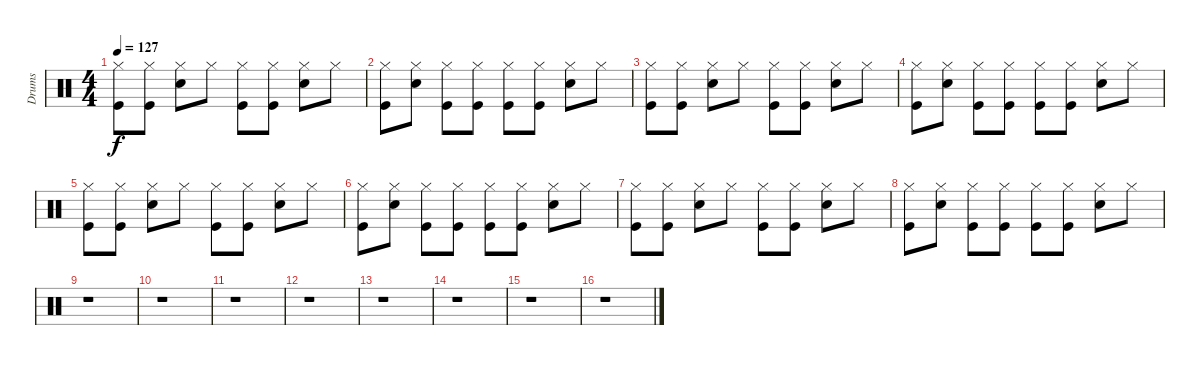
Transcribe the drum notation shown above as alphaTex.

\track ("Drums" "Drums") {instrument percussion}
\staff {score}
\articulation defaults
\ts (4 4)
\tempo 127
\clef neutral
\ks c
("Hi-Hat (closed)" "Kick (hit)").8{dy f} ("Hi-Hat (closed)" "Kick (hit)").8 ("Hi-Hat (closed)" "Electric Snare (hit)").8 "Hi-Hat (closed)".8 ("Hi-Hat (closed)" "Kick (hit)").8 ("Hi-Hat (closed)" "Kick (hit)").8 ("Hi-Hat (closed)" "Electric Snare (hit)").8 "Hi-Hat (closed)".8 |
("Hi-Hat (closed)" "Kick (hit)").8 ("Hi-Hat (closed)" "Electric Snare (hit)").8 ("Hi-Hat (closed)" "Kick (hit)").8 ("Hi-Hat (closed)" "Kick (hit)").8 ("Hi-Hat (closed)" "Kick (hit)").8 ("Hi-Hat (closed)" "Kick (hit)").8 ("Hi-Hat (closed)" "Electric Snare (hit)").8 "Hi-Hat (closed)".8 |
("Hi-Hat (closed)" "Kick (hit)").8 ("Hi-Hat (closed)" "Kick (hit)").8 ("Hi-Hat (closed)" "Electric Snare (hit)").8 "Hi-Hat (closed)".8 ("Hi-Hat (closed)" "Kick (hit)").8 ("Hi-Hat (closed)" "Kick (hit)").8 ("Hi-Hat (closed)" "Electric Snare (hit)").8 "Hi-Hat (closed)".8 |
("Hi-Hat (closed)" "Kick (hit)").8 ("Hi-Hat (closed)" "Electric Snare (hit)").8 ("Hi-Hat (closed)" "Kick (hit)").8 ("Hi-Hat (closed)" "Kick (hit)").8 ("Hi-Hat (closed)" "Kick (hit)").8 ("Hi-Hat (closed)" "Kick (hit)").8 ("Hi-Hat (closed)" "Electric Snare (hit)").8 "Hi-Hat (closed)".8 |
("Hi-Hat (closed)" "Kick (hit)").8 ("Hi-Hat (closed)" "Kick (hit)").8 ("Hi-Hat (closed)" "Electric Snare (hit)").8 "Hi-Hat (closed)".8 ("Hi-Hat (closed)" "Kick (hit)").8 ("Hi-Hat (closed)" "Kick (hit)").8 ("Hi-Hat (closed)" "Electric Snare (hit)").8 "Hi-Hat (closed)".8 |
("Hi-Hat (closed)" "Kick (hit)").8 ("Hi-Hat (closed)" "Electric Snare (hit)").8 ("Hi-Hat (closed)" "Kick (hit)").8 ("Hi-Hat (closed)" "Kick (hit)").8 ("Hi-Hat (closed)" "Kick (hit)").8 ("Hi-Hat (closed)" "Kick (hit)").8 ("Hi-Hat (closed)" "Electric Snare (hit)").8 "Hi-Hat (closed)".8 |
("Hi-Hat (closed)" "Kick (hit)").8 ("Hi-Hat (closed)" "Kick (hit)").8 ("Hi-Hat (closed)" "Electric Snare (hit)").8 "Hi-Hat (closed)".8 ("Hi-Hat (closed)" "Kick (hit)").8 ("Hi-Hat (closed)" "Kick (hit)").8 ("Hi-Hat (closed)" "Electric Snare (hit)").8 "Hi-Hat (closed)".8 |
("Hi-Hat (closed)" "Kick (hit)").8 ("Hi-Hat (closed)" "Electric Snare (hit)").8 ("Hi-Hat (closed)" "Kick (hit)").8 ("Hi-Hat (closed)" "Kick (hit)").8 ("Hi-Hat (closed)" "Kick (hit)").8 ("Hi-Hat (closed)" "Kick (hit)").8 ("Hi-Hat (closed)" "Electric Snare (hit)").8 "Hi-Hat (closed)".8 |
r.1 |
r.1 |
r.1 |
r.1 |
r.1 |
r.1 |
r.1 |
r.1
